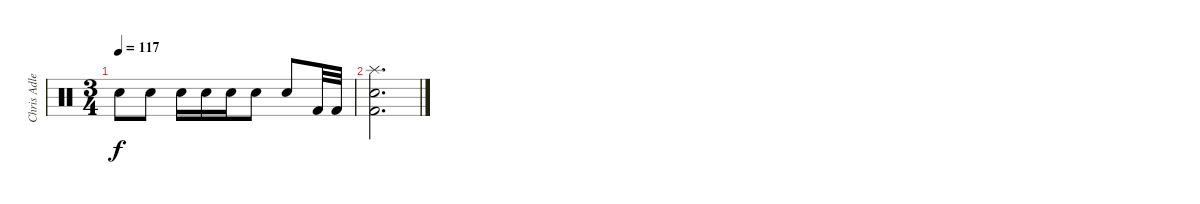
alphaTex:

\track ("Chris Adler" "Chris Adle") {instrument percussion}
\staff {score}
\articulation defaults
\ts (3 4)
\tempo 117
\clef neutral
\ks c "Electric Snare (hit)".8{dy f} "Electric Snare (hit)".8 "Electric Snare (hit)".16 "Electric Snare (hit)".16 "Electric Snare (hit)".16 "Electric Snare (hit)".8 "Electric Snare (hit)".8 "Kick (hit) 2".32 "Kick (hit) 2".32
|
("Splash (hit)" "Electric Snare (hit)" "Kick (hit) 2").2{d}
